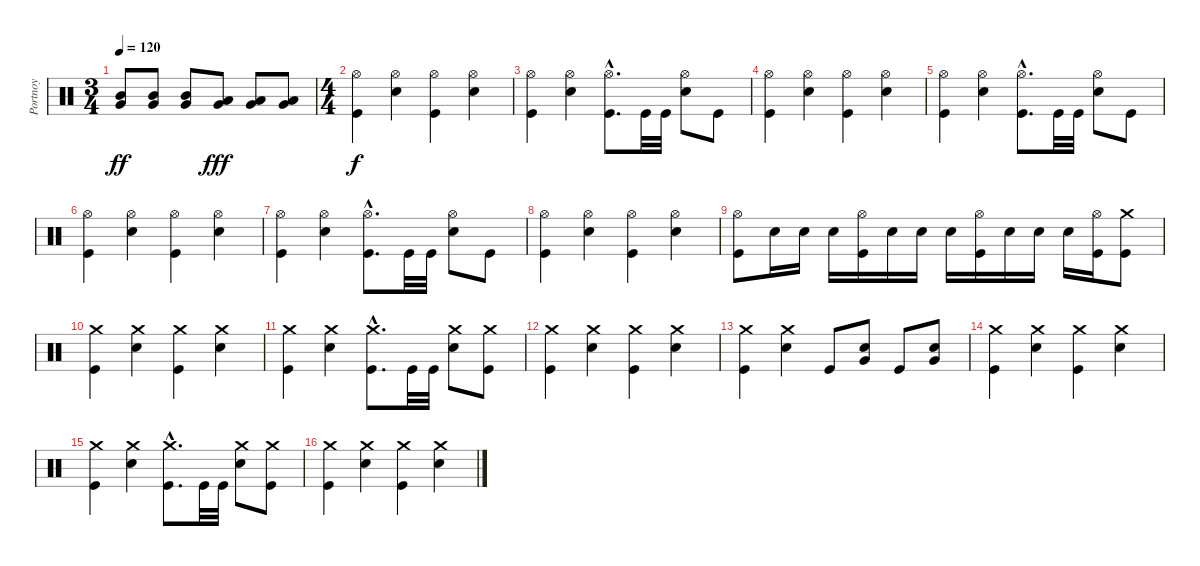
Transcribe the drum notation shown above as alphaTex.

\track ("Portnoy" "Portnoy") {instrument percussion}
\staff {score}
\articulation defaults
\ts (3 4)
\tempo 120
\clef neutral
\ks c
("Mid Tom (hit)" "Very Low Tom (hit)").8{dy ff} ("Mid Tom (hit)" "Very Low Tom (hit)").8 ("Mid Tom (hit)" "Very Low Tom (hit)").8 ("Low Tom (hit)" "Very Low Tom (hit)").8{dy fff} ("Low Tom (hit)" "Very Low Tom (hit)").8 ("Low Tom (hit)" "Very Low Tom (hit)").8 |
\ts (4 4)
("Hi-Hat (open)" "Kick (hit)").4{dy f} ("Hi-Hat (open)" "Snare (hit) 2").4 ("Hi-Hat (open)" "Kick (hit)").4 ("Hi-Hat (open)" "Snare (hit) 2").4 |
("Hi-Hat (open)" "Kick (hit)").4 ("Hi-Hat (open)" "Snare (hit) 2").4 ("Hi-Hat (open)"{hac} "Kick (hit)"{hac}).8{d} "Kick (hit)".32 "Kick (hit)".32 ("Hi-Hat (open)" "Snare (hit) 2").8 "Kick (hit)".8 |
("Hi-Hat (open)" "Kick (hit)").4 ("Hi-Hat (open)" "Snare (hit) 2").4 ("Hi-Hat (open)" "Kick (hit)").4 ("Hi-Hat (open)" "Snare (hit) 2").4 |
("Hi-Hat (open)" "Kick (hit)").4 ("Hi-Hat (open)" "Snare (hit) 2").4 ("Hi-Hat (open)"{hac} "Kick (hit)"{hac}).8{d} "Kick (hit)".32 "Kick (hit)".32 ("Hi-Hat (open)" "Snare (hit) 2").8 "Kick (hit)".8 |
("Hi-Hat (open)" "Kick (hit)").4 ("Hi-Hat (open)" "Snare (hit) 2").4 ("Hi-Hat (open)" "Kick (hit)").4 ("Hi-Hat (open)" "Snare (hit) 2").4 |
("Hi-Hat (open)" "Kick (hit)").4 ("Hi-Hat (open)" "Snare (hit) 2").4 ("Hi-Hat (open)"{hac} "Kick (hit)"{hac}).8{d} "Kick (hit)".32 "Kick (hit)".32 ("Hi-Hat (open)" "Snare (hit) 2").8 "Kick (hit)".8 |
("Hi-Hat (open)" "Kick (hit)").4 ("Hi-Hat (open)" "Snare (hit) 2").4 ("Hi-Hat (open)" "Kick (hit)").4 ("Hi-Hat (open)" "Snare (hit) 2").4 |
("Hi-Hat (open)" "Kick (hit)").8 "Snare (hit) 2".16 "Snare (hit) 2".16 "Snare (hit) 2".16 ("Hi-Hat (open)" "Kick (hit)").16 "Snare (hit) 2".16 "Snare (hit) 2".16 "Snare (hit) 2".16 ("Hi-Hat (open)" "Kick (hit)").16 "Snare (hit) 2".16 "Snare (hit) 2".16 "Snare (hit) 2".16 ("Hi-Hat (open)" "Kick (hit)").16 ("Crash medium (hit)" "Kick (hit)").8 |
("Crash medium (hit)" "Kick (hit)").4 ("Crash medium (hit)" "Snare (hit) 2").4 ("Crash medium (hit)" "Kick (hit)").4 ("Crash medium (hit)" "Snare (hit) 2").4 |
("Crash medium (hit)" "Kick (hit)").4 ("Crash medium (hit)" "Snare (hit) 2").4 ("Crash medium (hit)"{hac} "Kick (hit)"{hac}).8{d} "Kick (hit)".32 "Kick (hit)".32 ("Crash medium (hit)" "Snare (hit) 2").8 ("Crash medium (hit)" "Kick (hit)").8 |
("Crash medium (hit)" "Kick (hit)").4 ("Crash medium (hit)" "Snare (hit) 2").4 ("Crash medium (hit)" "Kick (hit)").4 ("Crash medium (hit)" "Snare (hit) 2").4 |
("Crash medium (hit)" "Kick (hit)").4 ("Crash medium (hit)" "Snare (hit) 2").4 "Kick (hit)".8 ("Snare (hit) 2" "Very Low Tom (hit)").8 "Kick (hit)".8 ("Snare (hit) 2" "Very Low Tom (hit)").8 |
("Crash medium (hit)" "Kick (hit)").4 ("Crash medium (hit)" "Snare (hit) 2").4 ("Crash medium (hit)" "Kick (hit)").4 ("Crash medium (hit)" "Snare (hit) 2").4 |
("Crash medium (hit)" "Kick (hit)").4 ("Crash medium (hit)" "Snare (hit) 2").4 ("Crash medium (hit)"{hac} "Kick (hit)"{hac}).8{d} "Kick (hit)".32 "Kick (hit)".32 ("Crash medium (hit)" "Snare (hit) 2").8 ("Crash medium (hit)" "Kick (hit)").8 |
("Crash medium (hit)" "Kick (hit)").4 ("Crash medium (hit)" "Snare (hit) 2").4 ("Crash medium (hit)" "Kick (hit)").4 ("Crash medium (hit)" "Snare (hit) 2").4
